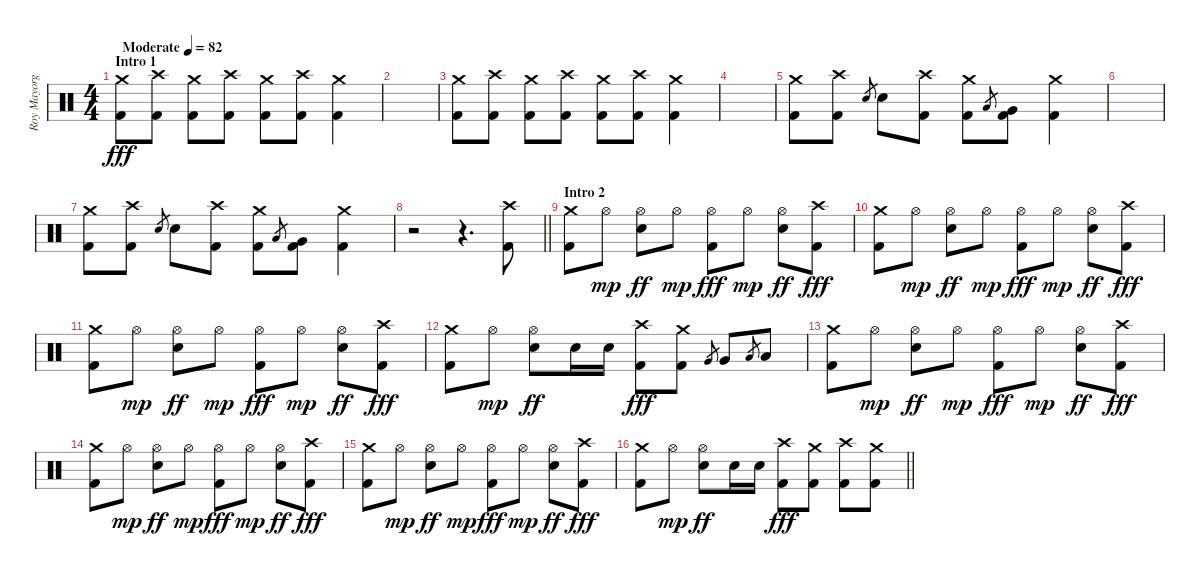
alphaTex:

\track ("Roy Mayorga" "Roy Mayorg") {instrument percussion}
\staff {score}
\articulation defaults
\ts (4 4)
\section ("" "Intro 1")
\tempo (82 "Moderate")
\clef neutral
\ks c
("Crash medium (hit)" "Kick (hit) 2").8{dy fff} ("Crash high (hit)" "Kick (hit) 2").8 ("Crash medium (hit)" "Kick (hit) 2").8 ("Crash high (hit)" "Kick (hit) 2").8 ("Crash medium (hit)" "Kick (hit) 2").8 ("Crash high (hit)" "Kick (hit) 2").8 ("Crash medium (hit)" "Kick (hit) 2").4 |
|
("Crash medium (hit)" "Kick (hit) 2").8 ("Crash high (hit)" "Kick (hit) 2").8 ("Crash medium (hit)" "Kick (hit) 2").8 ("Crash high (hit)" "Kick (hit) 2").8 ("Crash medium (hit)" "Kick (hit) 2").8 ("Crash high (hit)" "Kick (hit) 2").8 ("Crash medium (hit)" "Kick (hit) 2").4 |
|
("Crash medium (hit)" "Kick (hit) 2").8 ("Crash high (hit)" "Kick (hit) 2").8 "Electric Snare (hit)".8{gr} "Electric Snare (hit)".8 ("Crash high (hit)" "Kick (hit) 2").8 ("Crash medium (hit)" "Kick (hit) 2").8 "Low Floor Tom (hit)".8{gr} ("Very Low Tom (hit)" "Kick (hit) 2").8 ("Crash medium (hit)" "Kick (hit) 2").4 |
|
("Crash medium (hit)" "Kick (hit) 2").8 ("Crash high (hit)" "Kick (hit) 2").8 "Electric Snare (hit)".8{gr} "Electric Snare (hit)".8 ("Crash high (hit)" "Kick (hit) 2").8 ("Crash medium (hit)" "Kick (hit) 2").8 "Low Floor Tom (hit)".8{gr} ("Very Low Tom (hit)" "Kick (hit) 2").8 ("Crash medium (hit)" "Kick (hit) 2").4 |
\barLineRight lightlight
r.2 r.4{d} ("Crash high (hit)" "Kick (hit) 2").8 |
\section ("" "Intro 2")
("Crash medium (hit)" "Kick (hit) 2").8 "Hi-Hat (open)".8{dy mp} ("Hi-Hat (open)" "Electric Snare (hit)").8{dy ff} "Hi-Hat (open)".8{dy mp} ("Hi-Hat (open)" "Kick (hit) 2").8{dy fff} "Hi-Hat (open)".8{dy mp} ("Hi-Hat (open)" "Electric Snare (hit)").8{dy ff} ("Crash high (hit)" "Kick (hit) 2").8{dy fff} |
("Crash medium (hit)" "Kick (hit) 2").8 "Hi-Hat (open)".8{dy mp} ("Hi-Hat (open)" "Electric Snare (hit)").8{dy ff} "Hi-Hat (open)".8{dy mp} ("Hi-Hat (open)" "Kick (hit) 2").8{dy fff} "Hi-Hat (open)".8{dy mp} ("Hi-Hat (open)" "Electric Snare (hit)").8{dy ff} ("Crash high (hit)" "Kick (hit) 2").8{dy fff} |
("Crash medium (hit)" "Kick (hit) 2").8 "Hi-Hat (open)".8{dy mp} ("Hi-Hat (open)" "Electric Snare (hit)").8{dy ff} "Hi-Hat (open)".8{dy mp} ("Hi-Hat (open)" "Kick (hit) 2").8{dy fff} "Hi-Hat (open)".8{dy mp} ("Hi-Hat (open)" "Electric Snare (hit)").8{dy ff} ("Crash high (hit)" "Kick (hit) 2").8{dy fff} |
("Crash medium (hit)" "Kick (hit) 2").8 "Hi-Hat (open)".8{dy mp} ("Hi-Hat (open)" "Electric Snare (hit)").8{dy ff} "Electric Snare (hit)".16 "Electric Snare (hit)".16 ("Crash high (hit)" "Kick (hit) 2").8{dy fff} ("Crash medium (hit)" "Kick (hit) 2").8 "Very Low Tom (hit)".8{gr} "Very Low Tom (hit)".8 "Low Floor Tom (hit)".8{gr} "Low Floor Tom (hit)".8 |
("Crash medium (hit)" "Kick (hit) 2").8 "Hi-Hat (open)".8{dy mp} ("Hi-Hat (open)" "Electric Snare (hit)").8{dy ff} "Hi-Hat (open)".8{dy mp} ("Hi-Hat (open)" "Kick (hit) 2").8{dy fff} "Hi-Hat (open)".8{dy mp} ("Hi-Hat (open)" "Electric Snare (hit)").8{dy ff} ("Crash high (hit)" "Kick (hit) 2").8{dy fff} |
("Crash medium (hit)" "Kick (hit) 2").8 "Hi-Hat (open)".8{dy mp} ("Hi-Hat (open)" "Electric Snare (hit)").8{dy ff} "Hi-Hat (open)".8{dy mp} ("Hi-Hat (open)" "Kick (hit) 2").8{dy fff} "Hi-Hat (open)".8{dy mp} ("Hi-Hat (open)" "Electric Snare (hit)").8{dy ff} ("Crash high (hit)" "Kick (hit) 2").8{dy fff} |
("Crash medium (hit)" "Kick (hit) 2").8 "Hi-Hat (open)".8{dy mp} ("Hi-Hat (open)" "Electric Snare (hit)").8{dy ff} "Hi-Hat (open)".8{dy mp} ("Hi-Hat (open)" "Kick (hit) 2").8{dy fff} "Hi-Hat (open)".8{dy mp} ("Hi-Hat (open)" "Electric Snare (hit)").8{dy ff} ("Crash high (hit)" "Kick (hit) 2").8{dy fff} |
\barLineRight lightlight
("Crash medium (hit)" "Kick (hit) 2").8 "Hi-Hat (open)".8{dy mp} ("Hi-Hat (open)" "Electric Snare (hit)").8{dy ff} "Electric Snare (hit)".16 "Electric Snare (hit)".16 ("Crash high (hit)" "Kick (hit) 2").8{dy fff} ("Crash medium (hit)" "Kick (hit) 2").8 ("Crash high (hit)" "Kick (hit) 2").8 ("Crash medium (hit)" "Kick (hit) 2").8
